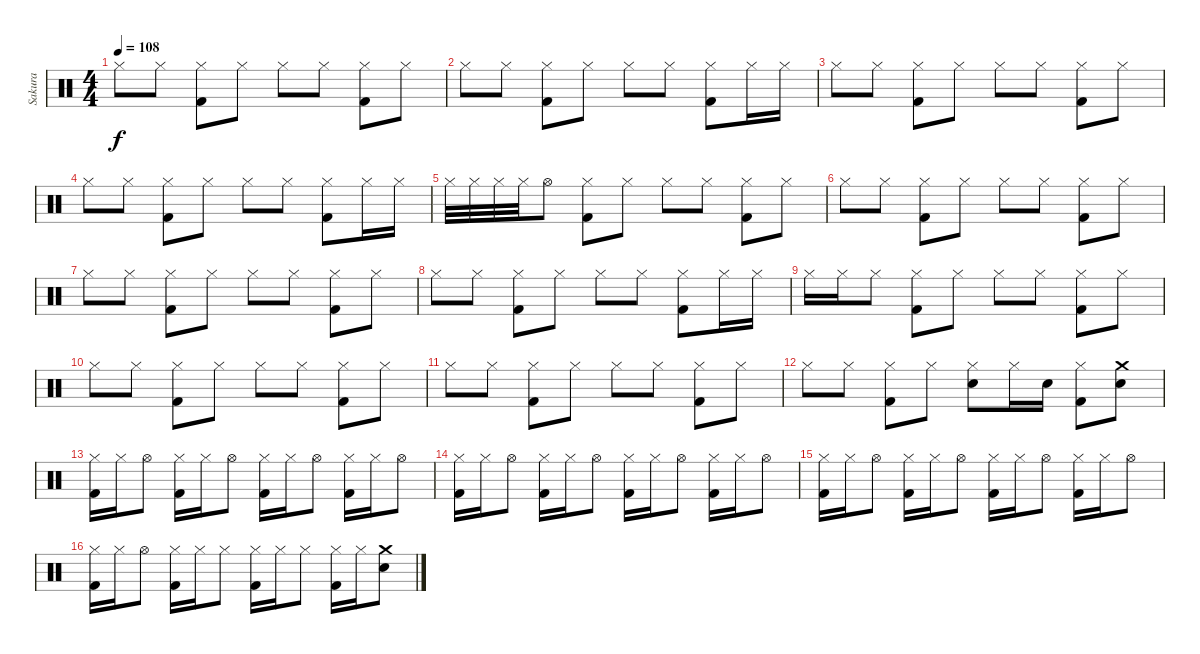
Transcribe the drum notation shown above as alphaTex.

\track ("Sakura" "Sakura") {instrument percussion}
\staff {score}
\articulation defaults
\ts (4 4)
\tempo 108
\clef neutral
\ks c "Hi-Hat (closed)".8{dy f} "Hi-Hat (closed)".8
("Hi-Hat (closed)" "Kick (hit) 2").8 "Hi-Hat (closed)".8 "Hi-Hat (closed)".8 "Hi-Hat (closed)".8 ("Hi-Hat (closed)" "Kick (hit) 2").8 "Hi-Hat (closed)".8 |
"Hi-Hat (closed)".8 "Hi-Hat (closed)".8 ("Hi-Hat (closed)" "Kick (hit) 2").8 "Hi-Hat (closed)".8 "Hi-Hat (closed)".8 "Hi-Hat (closed)".8 ("Hi-Hat (closed)" "Kick (hit) 2").8 "Hi-Hat (closed)".16 "Hi-Hat (closed)".16 |
"Hi-Hat (closed)".8 "Hi-Hat (closed)".8 ("Hi-Hat (closed)" "Kick (hit) 2").8 "Hi-Hat (closed)".8 "Hi-Hat (closed)".8 "Hi-Hat (closed)".8 ("Hi-Hat (closed)" "Kick (hit) 2").8 "Hi-Hat (closed)".8 |
"Hi-Hat (closed)".8 "Hi-Hat (closed)".8 ("Hi-Hat (closed)" "Kick (hit) 2").8 "Hi-Hat (closed)".8 "Hi-Hat (closed)".8 "Hi-Hat (closed)".8 ("Hi-Hat (closed)" "Kick (hit) 2").8 "Hi-Hat (closed)".16 "Hi-Hat (closed)".16 |
"Hi-Hat (closed)".32 "Hi-Hat (closed)".32 "Hi-Hat (closed)".32 "Hi-Hat (closed)".32 "Hi-Hat (open)".8 ("Hi-Hat (closed)" "Kick (hit) 2").8 "Hi-Hat (closed)".8 "Hi-Hat (closed)".8 "Hi-Hat (closed)".8 ("Hi-Hat (closed)" "Kick (hit) 2").8 "Hi-Hat (closed)".8 |
"Hi-Hat (closed)".8 "Hi-Hat (closed)".8 ("Hi-Hat (closed)" "Kick (hit) 2").8 "Hi-Hat (closed)".8 "Hi-Hat (closed)".8 "Hi-Hat (closed)".8 ("Hi-Hat (closed)" "Kick (hit) 2").8 "Hi-Hat (closed)".8 |
"Hi-Hat (closed)".8 "Hi-Hat (closed)".8 ("Hi-Hat (closed)" "Kick (hit) 2").8 "Hi-Hat (closed)".8 "Hi-Hat (closed)".8 "Hi-Hat (closed)".8 ("Hi-Hat (closed)" "Kick (hit) 2").8 "Hi-Hat (closed)".8 |
"Hi-Hat (closed)".8 "Hi-Hat (closed)".8 ("Hi-Hat (closed)" "Kick (hit) 2").8 "Hi-Hat (closed)".8 "Hi-Hat (closed)".8 "Hi-Hat (closed)".8 ("Hi-Hat (closed)" "Kick (hit) 2").8 "Hi-Hat (closed)".16 "Hi-Hat (closed)".16 |
"Hi-Hat (closed)".16 "Hi-Hat (closed)".16 "Hi-Hat (closed)".8 ("Hi-Hat (closed)" "Kick (hit) 2").8 "Hi-Hat (closed)".8 "Hi-Hat (closed)".8 "Hi-Hat (closed)".8 ("Hi-Hat (closed)" "Kick (hit) 2").8 "Hi-Hat (closed)".8 |
"Hi-Hat (closed)".8 "Hi-Hat (closed)".8 ("Hi-Hat (closed)" "Kick (hit) 2").8 "Hi-Hat (closed)".8 "Hi-Hat (closed)".8 "Hi-Hat (closed)".8 ("Hi-Hat (closed)" "Kick (hit) 2").8 "Hi-Hat (closed)".8 |
"Hi-Hat (closed)".8 "Hi-Hat (closed)".8 ("Hi-Hat (closed)" "Kick (hit) 2").8 "Hi-Hat (closed)".8 "Hi-Hat (closed)".8 "Hi-Hat (closed)".8 ("Hi-Hat (closed)" "Kick (hit) 2").8 "Hi-Hat (closed)".8 |
"Hi-Hat (closed)".8 "Hi-Hat (closed)".8 ("Hi-Hat (closed)" "Kick (hit) 2").8 "Hi-Hat (closed)".8 ("Hi-Hat (closed)" "Snare (hit) 2").8 "Hi-Hat (closed)".16 "Snare (hit) 2".16 ("Hi-Hat (closed)" "Kick (hit) 2").8 ("Crash medium (hit)" "Snare (hit) 2").8 |
("Hi-Hat (closed)" "Kick (hit) 2").16 "Hi-Hat (closed)".16 "Hi-Hat (open)".8 ("Hi-Hat (closed)" "Kick (hit) 2").16 "Hi-Hat (closed)".16 "Hi-Hat (open)".8 ("Hi-Hat (closed)" "Kick (hit) 2").16 "Hi-Hat (closed)".16 "Hi-Hat (open)".8 ("Hi-Hat (closed)" "Kick (hit) 2").16 "Hi-Hat (closed)".16 "Hi-Hat (open)".8 |
("Hi-Hat (closed)" "Kick (hit) 2").16 "Hi-Hat (closed)".16 "Hi-Hat (open)".8 ("Hi-Hat (closed)" "Kick (hit) 2").16 "Hi-Hat (closed)".16 "Hi-Hat (open)".8 ("Hi-Hat (closed)" "Kick (hit) 2").16 "Hi-Hat (closed)".16 "Hi-Hat (open)".8 ("Hi-Hat (closed)" "Kick (hit) 2").16 "Hi-Hat (closed)".16 "Hi-Hat (open)".8 |
("Hi-Hat (closed)" "Kick (hit) 2").16 "Hi-Hat (closed)".16 "Hi-Hat (open)".8 ("Hi-Hat (closed)" "Kick (hit) 2").16 "Hi-Hat (closed)".16 "Hi-Hat (open)".8 ("Hi-Hat (closed)" "Kick (hit) 2").16 "Hi-Hat (closed)".16 "Hi-Hat (open)".8 ("Hi-Hat (closed)" "Kick (hit) 2").16 "Hi-Hat (closed)".16 "Hi-Hat (open)".8 |
("Hi-Hat (closed)" "Kick (hit) 2").16 "Hi-Hat (closed)".16 "Hi-Hat (open)".8 ("Hi-Hat (closed)" "Kick (hit) 2").16 "Hi-Hat (closed)".16 "Hi-Hat (closed)".8 ("Hi-Hat (closed)" "Kick (hit) 2").16 "Hi-Hat (closed)".16 "Hi-Hat (closed)".8 ("Hi-Hat (closed)" "Kick (hit) 2").16 "Hi-Hat (closed)".16 ("Crash medium (hit)" "Snare (hit) 2").8
